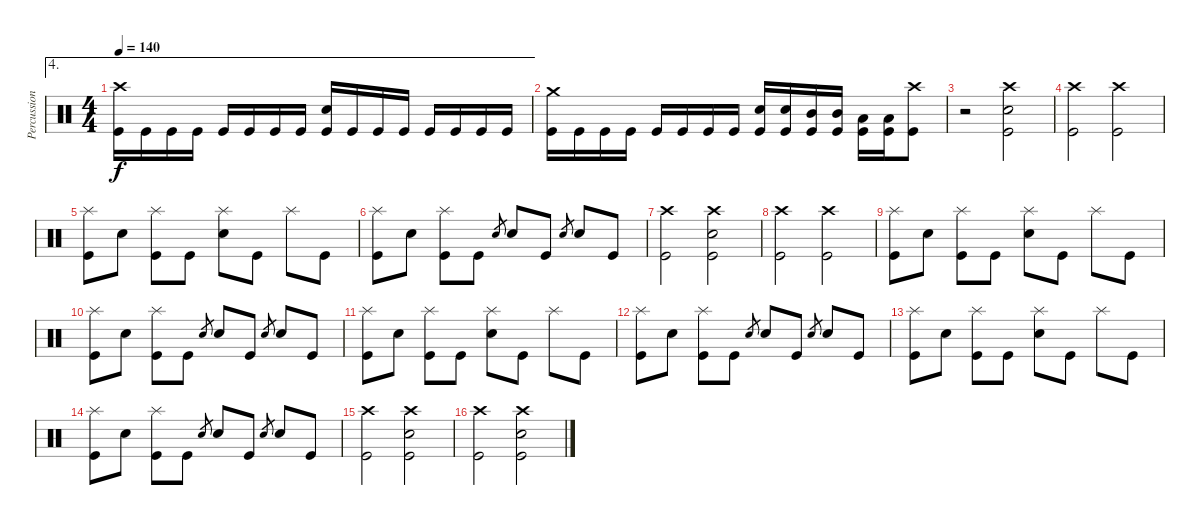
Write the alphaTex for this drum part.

\track ("Percussion" "Percussion") {instrument percussion}
\staff {score}
\articulation defaults
\ae 4
\ts (4 4)
\tempo 140
\clef neutral
\ks c
("Crash high (hit)" "Kick (hit)").16{dy f} "Kick (hit)".16 "Kick (hit)".16 "Kick (hit)".16 "Kick (hit)".16 "Kick (hit)".16 "Kick (hit)".16 "Kick (hit)".16 ("Snare (hit) 2" "Kick (hit)").16 "Kick (hit)".16 "Kick (hit)".16 "Kick (hit)".16 "Kick (hit)".16 "Kick (hit)".16 "Kick (hit)".16 "Kick (hit)".16 |
("Crash medium (hit)" "Kick (hit)").16 "Kick (hit)".16 "Kick (hit)".16 "Kick (hit)".16 "Kick (hit)".16 "Kick (hit)".16 "Kick (hit)".16 "Kick (hit)".16 ("Snare (hit) 2" "Kick (hit)").16 ("Snare (hit) 2" "Kick (hit)").16 ("Mid Tom (hit)" "Kick (hit)").16 ("Mid Tom (hit)" "Kick (hit)").16 ("Low Tom (hit)" "Kick (hit)").16 ("Low Tom (hit)" "Kick (hit)").16 ("Crash high (hit)" "Kick (hit)").8 |
r.2 ("Crash high (hit)" "Snare (hit) 2" "Kick (hit)").2 |
("Crash high (hit)" "Kick (hit)").2 ("Crash high (hit)" "Kick (hit)").2 |
("Splash (hit)" "Kick (hit)").8 "Snare (hit) 2".8 ("Splash (hit)" "Kick (hit)").8 "Kick (hit)".8 ("Splash (hit)" "Snare (hit) 2").8 "Kick (hit)".8 "Splash (hit)".8 "Kick (hit)".8 |
("Splash (hit)" "Kick (hit)").8 "Snare (hit) 2".8 ("Splash (hit)" "Kick (hit)").8 "Kick (hit)".8 "Snare (hit) 2".8{gr} "Snare (hit) 2".8 "Kick (hit)".8 "Snare (hit) 2".8{gr} "Snare (hit) 2".8 "Kick (hit)".8 |
("Crash high (hit)" "Kick (hit)").2 ("Crash high (hit)" "Snare (hit) 2" "Kick (hit)").2 |
("Crash high (hit)" "Kick (hit)").2 ("Crash high (hit)" "Kick (hit)").2 |
("Splash (hit)" "Kick (hit)").8 "Snare (hit) 2".8 ("Splash (hit)" "Kick (hit)").8 "Kick (hit)".8 ("Splash (hit)" "Snare (hit) 2").8 "Kick (hit)".8 "Splash (hit)".8 "Kick (hit)".8 |
("Splash (hit)" "Kick (hit)").8 "Snare (hit) 2".8 ("Splash (hit)" "Kick (hit)").8 "Kick (hit)".8 "Snare (hit) 2".8{gr} "Snare (hit) 2".8 "Kick (hit)".8 "Snare (hit) 2".8{gr} "Snare (hit) 2".8 "Kick (hit)".8 |
("Splash (hit)" "Kick (hit)").8 "Snare (hit) 2".8 ("Splash (hit)" "Kick (hit)").8 "Kick (hit)".8 ("Splash (hit)" "Snare (hit) 2").8 "Kick (hit)".8 "Splash (hit)".8 "Kick (hit)".8 |
("Splash (hit)" "Kick (hit)").8 "Snare (hit) 2".8 ("Splash (hit)" "Kick (hit)").8 "Kick (hit)".8 "Snare (hit) 2".8{gr} "Snare (hit) 2".8 "Kick (hit)".8 "Snare (hit) 2".8{gr} "Snare (hit) 2".8 "Kick (hit)".8 |
("Splash (hit)" "Kick (hit)").8 "Snare (hit) 2".8 ("Splash (hit)" "Kick (hit)").8 "Kick (hit)".8 ("Splash (hit)" "Snare (hit) 2").8 "Kick (hit)".8 "Splash (hit)".8 "Kick (hit)".8 |
("Splash (hit)" "Kick (hit)").8 "Snare (hit) 2".8 ("Splash (hit)" "Kick (hit)").8 "Kick (hit)".8 "Snare (hit) 2".8{gr} "Snare (hit) 2".8 "Kick (hit)".8 "Snare (hit) 2".8{gr} "Snare (hit) 2".8 "Kick (hit)".8 |
("Crash high (hit)" "Kick (hit)").2 ("Crash high (hit)" "Snare (hit) 2" "Kick (hit)").2 |
("Crash high (hit)" "Kick (hit)").2 ("Crash high (hit)" "Snare (hit) 2" "Kick (hit)").2
